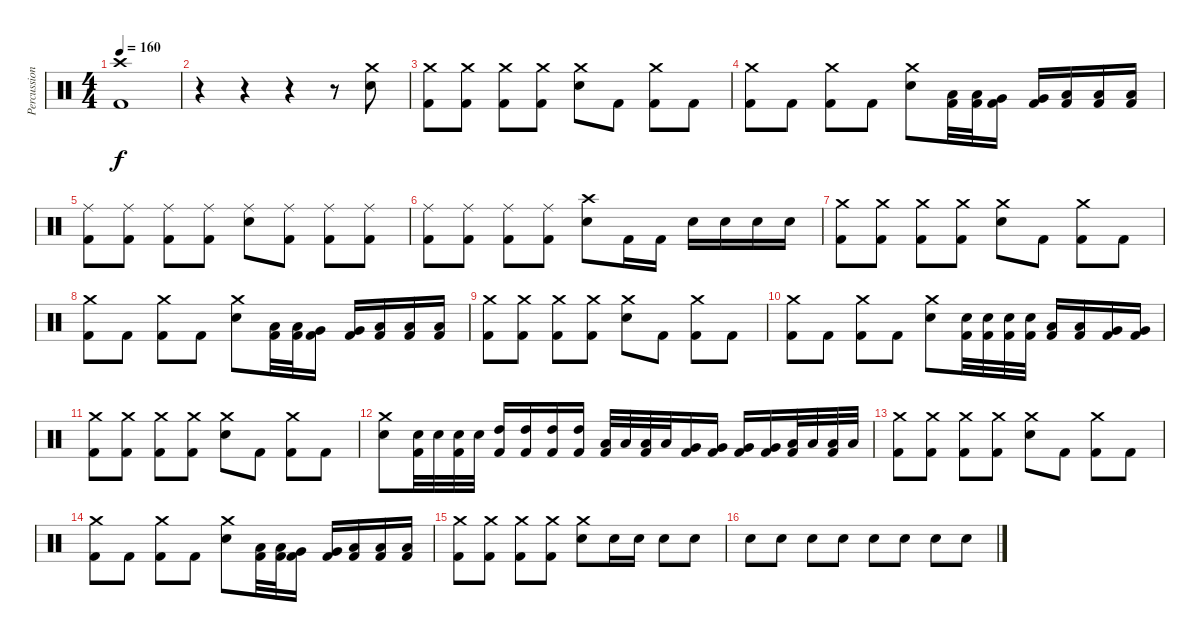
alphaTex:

\track ("Percussion" "Percussion") {instrument percussion}
\staff {score}
\articulation defaults
\ts (4 4)
\tempo 160
\clef neutral
\ks c
("Kick (hit) 2" "Crash high (hit)").1{dy f} |
r.4 r.4 r.4 r.8 ("Snare (hit) 2" "Crash medium (hit)").8 |
("Kick (hit) 2" "Crash medium (hit)").8 ("Kick (hit) 2" "Crash medium (hit)").8 ("Kick (hit) 2" "Crash medium (hit)").8 ("Kick (hit) 2" "Crash medium (hit)").8 ("Snare (hit) 2" "Crash medium (hit)").8 "Kick (hit) 2".8 ("Kick (hit) 2" "Crash medium (hit)").8 "Kick (hit) 2".8 |
("Kick (hit) 2" "Crash medium (hit)").8 "Kick (hit) 2".8 ("Kick (hit) 2" "Crash medium (hit)").8 "Kick (hit) 2".8 ("Snare (hit) 2" "Crash medium (hit)").8 ("Kick (hit) 2" "Low Tom (hit)").32 ("Kick (hit) 2" "Low Tom (hit)").32 ("Kick (hit) 2" "Very Low Tom (hit)").16 ("Kick (hit) 2" "Very Low Tom (hit)").16 ("Kick (hit) 2" "Low Tom (hit)").16 ("Kick (hit) 2" "Low Floor Tom (hit)").16 ("Kick (hit) 2" "Low Floor Tom (hit)").16 |
("Kick (hit) 2" "Ride (middle)").8 ("Kick (hit) 2" "Ride (middle)").8 ("Kick (hit) 2" "Ride (middle)").8 ("Kick (hit) 2" "Ride (middle)").8 ("Snare (hit) 2" "Ride (middle)").8 ("Kick (hit) 2" "Ride (middle)").8 ("Kick (hit) 2" "Ride (middle)").8 ("Kick (hit) 2" "Ride (middle)").8 |
("Kick (hit) 2" "Ride (middle)").8 ("Kick (hit) 2" "Ride (middle)").8 ("Kick (hit) 2" "Ride (middle)").8 ("Kick (hit) 2" "Ride (middle)").8 ("Snare (hit) 2" "Crash high (hit)").8 "Kick (hit) 2".16 "Kick (hit) 2".16 "Snare (hit) 2".16 "Snare (hit) 2".16 "Snare (hit) 2".16 "Snare (hit) 2".16 |
("Kick (hit) 2" "Crash medium (hit)").8 ("Kick (hit) 2" "Crash medium (hit)").8 ("Kick (hit) 2" "Crash medium (hit)").8 ("Kick (hit) 2" "Crash medium (hit)").8 ("Snare (hit) 2" "Crash medium (hit)").8 "Kick (hit) 2".8 ("Kick (hit) 2" "Crash medium (hit)").8 "Kick (hit) 2".8 |
("Kick (hit) 2" "Crash medium (hit)").8 "Kick (hit) 2".8 ("Kick (hit) 2" "Crash medium (hit)").8 "Kick (hit) 2".8 ("Snare (hit) 2" "Crash medium (hit)").8 ("Kick (hit) 2" "Low Tom (hit)").32 ("Kick (hit) 2" "Low Tom (hit)").32 ("Kick (hit) 2" "Very Low Tom (hit)").16 ("Kick (hit) 2" "Very Low Tom (hit)").16 ("Kick (hit) 2" "Low Tom (hit)").16 ("Kick (hit) 2" "Low Floor Tom (hit)").16 ("Kick (hit) 2" "Low Floor Tom (hit)").16 |
("Kick (hit) 2" "Crash medium (hit)").8 ("Kick (hit) 2" "Crash medium (hit)").8 ("Kick (hit) 2" "Crash medium (hit)").8 ("Kick (hit) 2" "Crash medium (hit)").8 ("Snare (hit) 2" "Crash medium (hit)").8 "Kick (hit) 2".8 ("Kick (hit) 2" "Crash medium (hit)").8 "Kick (hit) 2".8 |
("Kick (hit) 2" "Crash medium (hit)").8 "Kick (hit) 2".8 ("Kick (hit) 2" "Crash medium (hit)").8 "Kick (hit) 2".8 ("Snare (hit) 2" "Crash medium (hit)").8 ("Kick (hit) 2" "Snare (hit) 2").32 ("Kick (hit) 2" "Snare (hit) 2").32 ("Kick (hit) 2" "Snare (hit) 2").32 ("Kick (hit) 2" "Snare (hit) 2").32 ("Kick (hit) 2" "Low Tom (hit)").16 ("Kick (hit) 2" "Low Tom (hit)").16 ("Kick (hit) 2" "Very Low Tom (hit)").16 ("Kick (hit) 2" "Very Low Tom (hit)").16 |
("Kick (hit) 2" "Crash medium (hit)").8 ("Kick (hit) 2" "Crash medium (hit)").8 ("Kick (hit) 2" "Crash medium (hit)").8 ("Kick (hit) 2" "Crash medium (hit)").8 ("Snare (hit) 2" "Crash medium (hit)").8 "Kick (hit) 2".8 ("Kick (hit) 2" "Crash medium (hit)").8 "Kick (hit) 2".8 |
("Snare (hit) 2" "Crash medium (hit)").8 ("Snare (hit) 2" "Kick (hit) 2").32 "Snare (hit) 2".32 ("Snare (hit) 2" "Kick (hit) 2").32 "Snare (hit) 2".32 ("High Tom (hit)" "Kick (hit) 2").16 ("High Tom (hit)" "Kick (hit) 2").16 ("High Tom (hit)" "Kick (hit) 2").16 ("High Tom (hit)" "Kick (hit) 2").16 ("Low Tom (hit)" "Kick (hit) 2").32 "Low Tom (hit)".32 ("Low Tom (hit)" "Kick (hit) 2").32 "Low Tom (hit)".32 ("Very Low Tom (hit)" "Kick (hit) 2").16 ("Very Low Tom (hit)" "Kick (hit) 2").16 ("Very Low Tom (hit)" "Kick (hit) 2").16 ("Very Low Tom (hit)" "Kick (hit) 2").16 ("Low Floor Tom (hit)" "Kick (hit) 2").32 "Low Floor Tom (hit)".32 ("Low Floor Tom (hit)" "Kick (hit) 2").32 "Low Floor Tom (hit)".32 |
("Kick (hit) 2" "Crash medium (hit)").8 ("Kick (hit) 2" "Crash medium (hit)").8 ("Kick (hit) 2" "Crash medium (hit)").8 ("Kick (hit) 2" "Crash medium (hit)").8 ("Snare (hit) 2" "Crash medium (hit)").8 "Kick (hit) 2".8 ("Kick (hit) 2" "Crash medium (hit)").8 "Kick (hit) 2".8 |
("Kick (hit) 2" "Crash medium (hit)").8 "Kick (hit) 2".8 ("Kick (hit) 2" "Crash medium (hit)").8 "Kick (hit) 2".8 ("Snare (hit) 2" "Crash medium (hit)").8 ("Kick (hit) 2" "Low Tom (hit)").32 ("Kick (hit) 2" "Low Tom (hit)").32 ("Kick (hit) 2" "Very Low Tom (hit)").16 ("Kick (hit) 2" "Very Low Tom (hit)").16 ("Kick (hit) 2" "Low Tom (hit)").16 ("Kick (hit) 2" "Low Floor Tom (hit)").16 ("Kick (hit) 2" "Low Floor Tom (hit)").16 |
("Kick (hit) 2" "Crash medium (hit)").8 ("Kick (hit) 2" "Crash medium (hit)").8 ("Kick (hit) 2" "Crash medium (hit)").8 ("Kick (hit) 2" "Crash medium (hit)").8 ("Snare (hit) 2" "Crash medium (hit)").8 "Snare (hit) 2".16 "Snare (hit) 2".16 "Snare (hit) 2".8 "Snare (hit) 2".8 |
"Snare (hit) 2".8 "Snare (hit) 2".8 "Snare (hit) 2".8 "Snare (hit) 2".8 "Snare (hit) 2".8 "Snare (hit) 2".8 "Snare (hit) 2".8 "Snare (hit) 2".8
